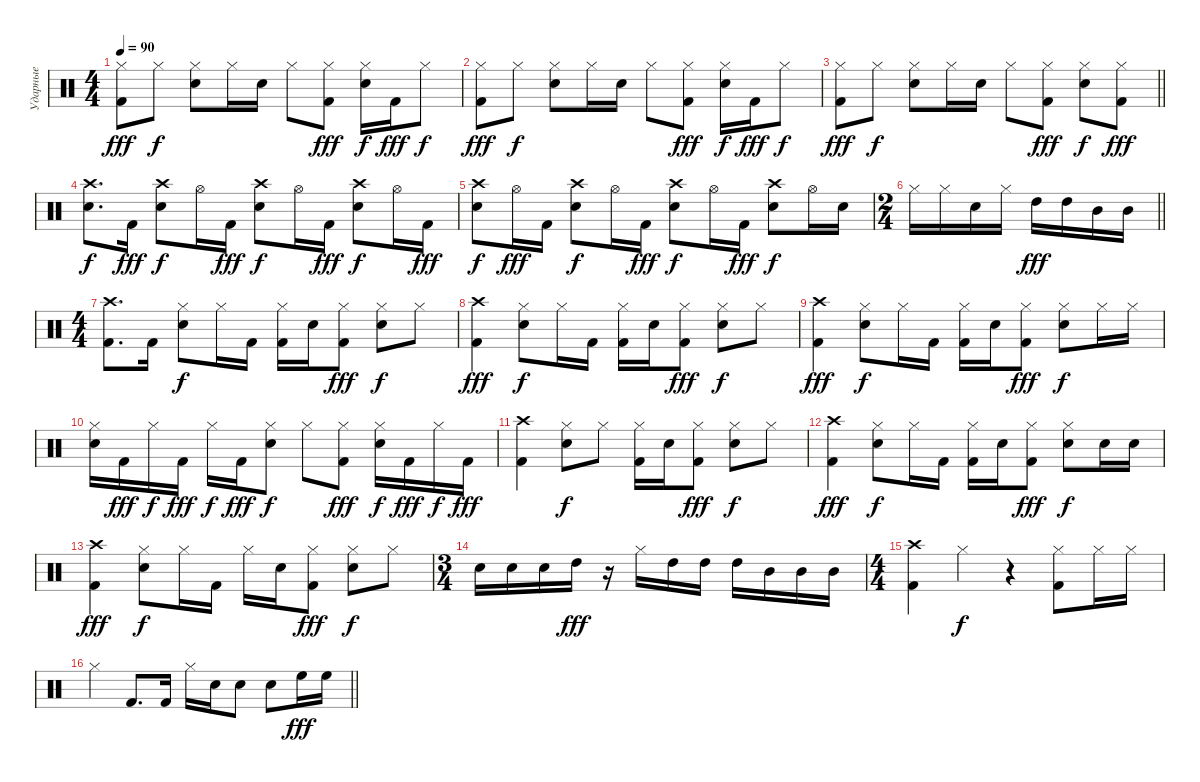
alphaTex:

\track ("Ударные" "Ударные") {instrument percussion}
\staff {score}
\articulation defaults
\ts (4 4)
\tempo 90
\clef neutral
\ks c
("Kick (hit) 2" "Hi-Hat (closed)").8{dy fff} "Hi-Hat (closed)".8{dy f} ("Snare (hit) 2" "Hi-Hat (closed)").8 "Hi-Hat (closed)".16 "Snare (hit) 2".16 "Hi-Hat (closed)".8 ("Kick (hit) 2" "Hi-Hat (closed)").8{dy fff} ("Snare (hit) 2" "Hi-Hat (closed)").16{dy f} "Kick (hit) 2".16{dy fff} "Hi-Hat (closed)".8{dy f} |
("Kick (hit) 2" "Hi-Hat (closed)").8{dy fff} "Hi-Hat (closed)".8{dy f} ("Snare (hit) 2" "Hi-Hat (closed)").8 "Hi-Hat (closed)".16 "Snare (hit) 2".16 "Hi-Hat (closed)".8 ("Kick (hit) 2" "Hi-Hat (closed)").8{dy fff} ("Snare (hit) 2" "Hi-Hat (closed)").16{dy f} "Kick (hit) 2".16{dy fff} "Hi-Hat (closed)".8{dy f} |
\barLineRight lightlight
("Kick (hit) 2" "Hi-Hat (closed)").8{dy fff} "Hi-Hat (closed)".8{dy f} ("Snare (hit) 2" "Hi-Hat (closed)").8 "Hi-Hat (closed)".16 "Snare (hit) 2".16 "Hi-Hat (closed)".8 ("Kick (hit) 2" "Hi-Hat (closed)").8{dy fff} ("Snare (hit) 2" "Hi-Hat (closed)").8{dy f} ("Kick (hit) 2" "Hi-Hat (closed)").8{dy fff} |
("Snare (hit) 2" "Crash high (hit)").8{d dy f} "Kick (hit) 2".16{dy fff} ("Snare (hit) 2" "Crash high (hit)").8{dy f} "Hi-Hat (open)".16 "Kick (hit) 2".16{dy fff} ("Snare (hit) 2" "Crash high (hit)").8{dy f} "Hi-Hat (open)".16 "Kick (hit) 2".16{dy fff} ("Snare (hit) 2" "Crash high (hit)").8{dy f} "Hi-Hat (open)".16 "Kick (hit) 2".16{dy fff} |
("Snare (hit) 2" "Crash high (hit)").8{dy f} "Hi-Hat (open)".16{dy fff} "Kick (hit) 2".16 ("Snare (hit) 2" "Crash high (hit)").8{dy f} "Hi-Hat (open)".16 "Kick (hit) 2".16{dy fff} ("Snare (hit) 2" "Crash high (hit)").8{dy f} "Hi-Hat (open)".16 "Kick (hit) 2".16{dy fff} ("Snare (hit) 2" "Crash high (hit)").8{dy f} "Hi-Hat (open)".16 "Snare (hit) 2".16 |
\ts (2 4)
\barLineRight lightlight "Hi-Hat (closed)".16 "Hi-Hat (closed)".16 "Snare (hit) 2".16 "Hi-Hat (closed)".16 "High Tom (hit)".16{dy fff} "High Tom (hit)".16 "Mid Tom (hit)".16 "Mid Tom (hit)".16
|
\ts (4 4)
("Kick (hit) 2" "Crash high (hit)").8{d} "Kick (hit) 2".16 ("Snare (hit) 2" "Hi-Hat (closed)").8{dy f} "Hi-Hat (closed)".16 "Kick (hit) 2".16 ("Kick (hit) 2" "Hi-Hat (closed)").16 "Snare (hit) 2".16 ("Kick (hit) 2" "Hi-Hat (closed)").8{dy fff} ("Snare (hit) 2" "Hi-Hat (closed)").8{dy f} "Hi-Hat (closed)".8 |
("Kick (hit) 2" "Crash high (hit)").4{dy fff} ("Snare (hit) 2" "Hi-Hat (closed)").8{dy f} "Hi-Hat (closed)".16 "Kick (hit) 2".16 ("Kick (hit) 2" "Hi-Hat (closed)").16 "Snare (hit) 2".16 ("Kick (hit) 2" "Hi-Hat (closed)").8{dy fff} ("Snare (hit) 2" "Hi-Hat (closed)").8{dy f} "Hi-Hat (closed)".8 |
("Kick (hit) 2" "Crash high (hit)").4{dy fff} ("Snare (hit) 2" "Hi-Hat (closed)").8{dy f} "Hi-Hat (closed)".16 "Kick (hit) 2".16 ("Kick (hit) 2" "Hi-Hat (closed)").16 "Snare (hit) 2".16 ("Kick (hit) 2" "Hi-Hat (closed)").8{dy fff} ("Snare (hit) 2" "Hi-Hat (closed)").8{dy f} "Hi-Hat (closed)".16 "Hi-Hat (closed)".16 |
("Snare (hit) 2" "Hi-Hat (closed)").16 "Kick (hit) 2".16{dy fff} "Hi-Hat (closed)".16{dy f} "Kick (hit) 2".16{dy fff} "Hi-Hat (closed)".16{dy f} "Kick (hit) 2".16{dy fff} ("Snare (hit) 2" "Hi-Hat (closed)").8{dy f} "Hi-Hat (closed)".8 ("Kick (hit) 2" "Hi-Hat (closed)").8{dy fff} ("Snare (hit) 2" "Hi-Hat (closed)").16{dy f} "Kick (hit) 2".16{dy fff} "Hi-Hat (closed)".16{dy f} "Kick (hit) 2".16{dy fff} |
("Kick (hit) 2" "Crash high (hit)").4 ("Snare (hit) 2" "Hi-Hat (closed)").8{dy f} "Hi-Hat (closed)".8 ("Kick (hit) 2" "Hi-Hat (closed)").16 "Snare (hit) 2".16 ("Kick (hit) 2" "Hi-Hat (closed)").8{dy fff} ("Snare (hit) 2" "Hi-Hat (closed)").8{dy f} "Hi-Hat (closed)".8 |
("Kick (hit) 2" "Crash high (hit)").4{dy fff} ("Snare (hit) 2" "Hi-Hat (closed)").8{dy f} "Hi-Hat (closed)".16 "Kick (hit) 2".16 ("Kick (hit) 2" "Hi-Hat (closed)").16 "Snare (hit) 2".16 ("Kick (hit) 2" "Hi-Hat (closed)").8{dy fff} ("Snare (hit) 2" "Hi-Hat (closed)").8{dy f} "Snare (hit) 2".16 "Snare (hit) 2".16 |
("Kick (hit) 2" "Crash high (hit)").4{dy fff} ("Snare (hit) 2" "Hi-Hat (closed)").8{dy f} "Hi-Hat (closed)".16 "Kick (hit) 2".16 "Hi-Hat (closed)".16 "Snare (hit) 2".16 ("Kick (hit) 2" "Hi-Hat (closed)").8{dy fff} ("Snare (hit) 2" "Hi-Hat (closed)").8{dy f} "Hi-Hat (closed)".8 |
\ts (3 4)
"Snare (hit) 2".16 "Snare (hit) 2".16 "Snare (hit) 2".16 "High Tom (hit)".16{dy fff} r.16 "Hi-Hat (closed)".16 "High Tom (hit)".16 "High Tom (hit)".16 "High Tom (hit)".16 "Mid Tom (hit)".16 "Mid Tom (hit)".16 "Mid Tom (hit)".16 |
\ts (4 4)
("Kick (hit) 2" "Crash high (hit)").4 "Hi-Hat (closed)".4{dy f} r.4 ("Kick (hit) 2" "Hi-Hat (closed)").8 "Hi-Hat (closed)".16 "Hi-Hat (closed)".16 |
\barLineRight lightlight "Hi-Hat (closed)".4 "Kick (hit) 2".8{d} "Kick (hit) 2".16 "Hi-Hat (closed)".16 "Snare (hit) 2".16 "Electric Snare (hit)".8 "Snare (hit) 2".8 "High Floor Tom (hit)".16{dy fff} "High Floor Tom (hit)".16
